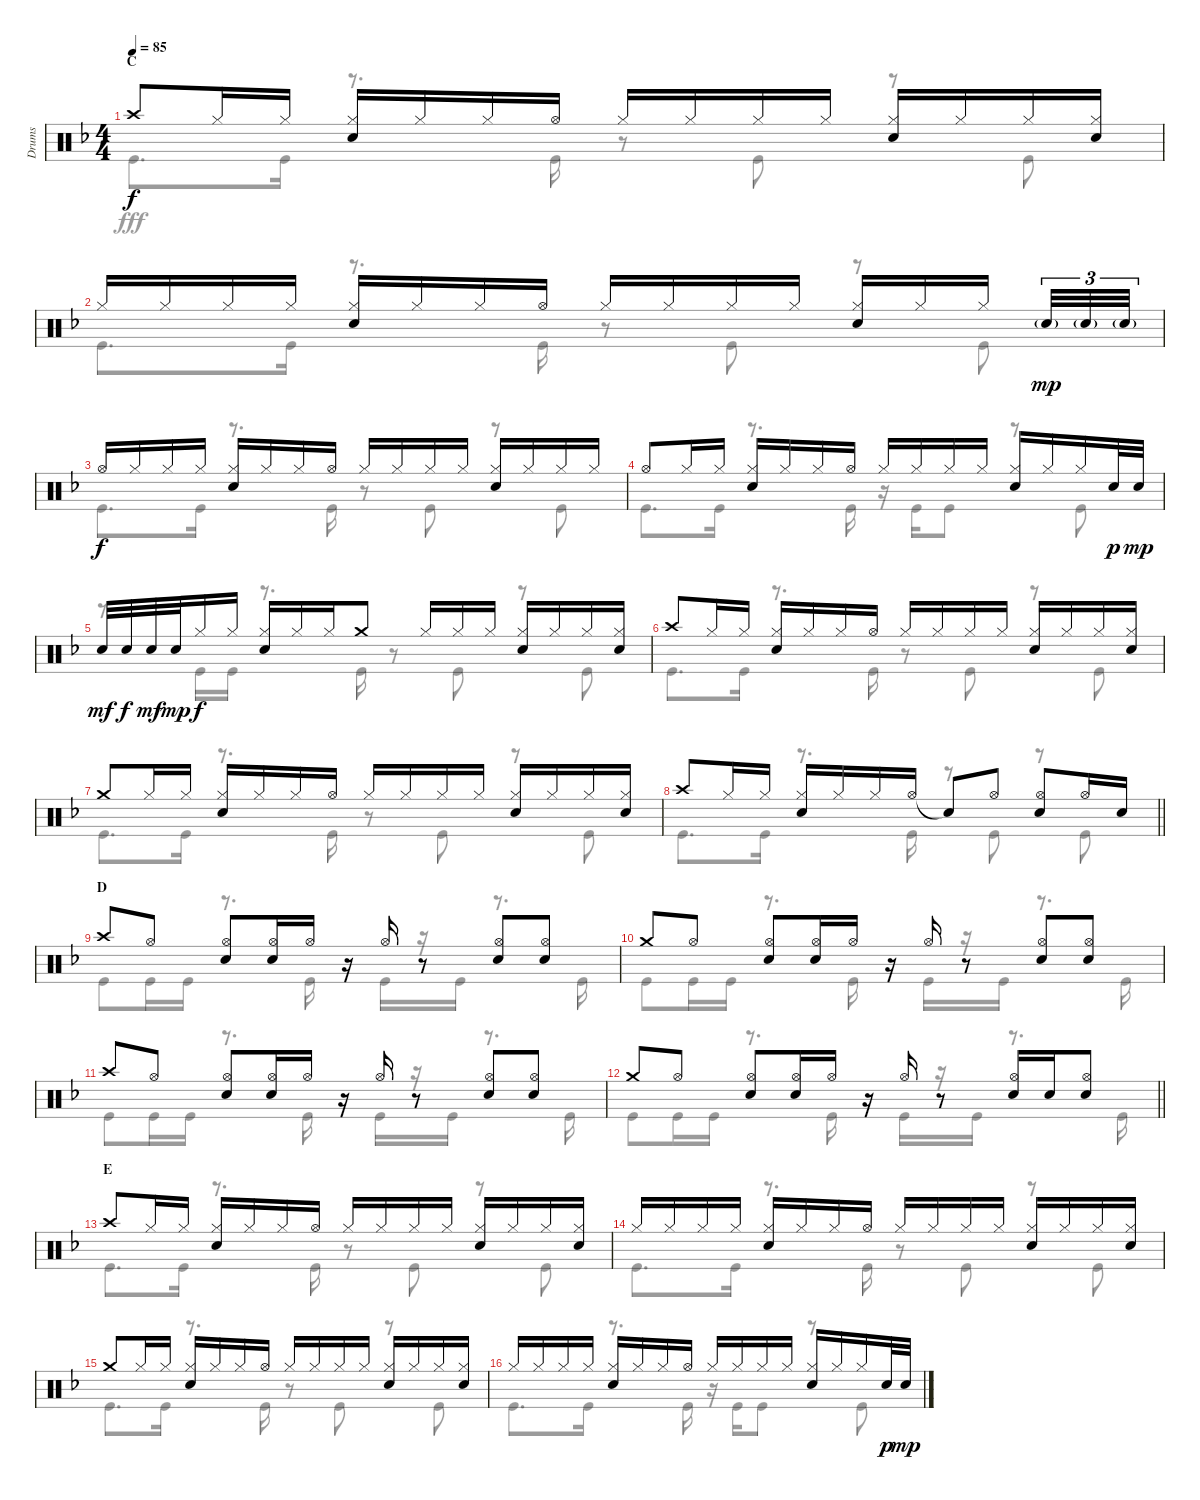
\track ("Drums" "Drums") {instrument percussion}
\staff {score}
\articulation defaults
\voice
\ts (4 4)
\section ("" "C")
\tempo 85
\clef neutral
\ks f "Crash high (hit)".8{dy f} "Hi-Hat (closed)".16 "Hi-Hat (closed)".16
("Hi-Hat (closed)" "Snare (hit) 2").16 "Hi-Hat (closed)".16 "Hi-Hat (closed)".16 "Hi-Hat (open)".16 "Hi-Hat (closed)".16 "Hi-Hat (closed)".16 "Hi-Hat (closed)".16 "Hi-Hat (closed)".16 ("Hi-Hat (closed)" "Snare (hit) 2").16 "Hi-Hat (closed)".16 "Hi-Hat (closed)".16 ("Hi-Hat (closed)" "Snare (hit) 2").16 |
"Hi-Hat (closed)".16 "Hi-Hat (closed)".16 "Hi-Hat (closed)".16 "Hi-Hat (closed)".16 ("Hi-Hat (closed)" "Snare (hit) 2").16 "Hi-Hat (closed)".16 "Hi-Hat (closed)".16 "Hi-Hat (open)".16 "Hi-Hat (closed)".16 "Hi-Hat (closed)".16 "Hi-Hat (closed)".16 "Hi-Hat (closed)".16 ("Hi-Hat (closed)" "Snare (hit) 2").16 "Hi-Hat (closed)".16 "Hi-Hat (closed)".16{beam splitsecondary} "Snare (hit) 2"{g}.32{tu (3 2) dy mp} "Snare (hit) 2"{g}.32{tu (3 2)} "Snare (hit) 2"{g}.32{tu (3 2)} |
"Hi-Hat (open)".16{dy f} "Hi-Hat (closed)".16 "Hi-Hat (closed)".16 "Hi-Hat (closed)".16 ("Hi-Hat (closed)" "Snare (hit) 2").16 "Hi-Hat (closed)".16 "Hi-Hat (closed)".16 "Hi-Hat (open)".16 "Hi-Hat (closed)".16 "Hi-Hat (closed)".16 "Hi-Hat (closed)".16 "Hi-Hat (closed)".16 ("Hi-Hat (closed)" "Snare (hit) 2").16 "Hi-Hat (closed)".16 "Hi-Hat (closed)".16 "Hi-Hat (closed)".16 |
"Hi-Hat (open)".8 "Hi-Hat (closed)".16 "Hi-Hat (closed)".16 ("Hi-Hat (closed)" "Snare (hit) 2").16 "Hi-Hat (closed)".16 "Hi-Hat (closed)".16 "Hi-Hat (open)".16 "Hi-Hat (closed)".16 "Hi-Hat (closed)".16 "Hi-Hat (closed)".16 "Hi-Hat (closed)".16 ("Hi-Hat (closed)" "Snare (hit) 2").16 "Hi-Hat (closed)".16 "Hi-Hat (closed)".16 "Snare (hit) 2".32{dy p} "Snare (hit) 2".32{dy mp} |
"Snare (hit) 2".32{dy mf} "Snare (hit) 2".32{dy f} "Snare (hit) 2".32{dy mf} "Snare (hit) 2".32{dy mp} "Hi-Hat (closed)".16{dy f} "Hi-Hat (closed)".16 ("Hi-Hat (closed)" "Snare (hit) 2").16 "Hi-Hat (closed)".16 "Hi-Hat (closed)".16 "Crash medium (hit)".8 "Hi-Hat (closed)".16 "Hi-Hat (closed)".16 "Hi-Hat (closed)".16 ("Hi-Hat (closed)" "Snare (hit) 2").16 "Hi-Hat (closed)".16 "Hi-Hat (closed)".16 ("Hi-Hat (closed)" "Snare (hit) 2").16 |
"Crash high (hit)".8 "Hi-Hat (closed)".16 "Hi-Hat (closed)".16 ("Hi-Hat (closed)" "Snare (hit) 2").16 "Hi-Hat (closed)".16 "Hi-Hat (closed)".16 "Hi-Hat (open)".16 "Hi-Hat (closed)".16 "Hi-Hat (closed)".16 "Hi-Hat (closed)".16 "Hi-Hat (closed)".16 ("Hi-Hat (closed)" "Snare (hit) 2").16 "Hi-Hat (closed)".16 "Hi-Hat (closed)".16 ("Hi-Hat (closed)" "Snare (hit) 2").16 |
"Crash medium (hit)".8 "Hi-Hat (closed)".16 "Hi-Hat (closed)".16 ("Hi-Hat (closed)" "Snare (hit) 2").16 "Hi-Hat (closed)".16 "Hi-Hat (closed)".16 "Hi-Hat (open)".16 "Hi-Hat (closed)".16 "Hi-Hat (closed)".16 "Hi-Hat (closed)".16 "Hi-Hat (closed)".16 ("Hi-Hat (closed)" "Snare (hit) 2").16 "Hi-Hat (closed)".16 "Hi-Hat (closed)".16 ("Hi-Hat (closed)" "Snare (hit) 2").16 |
\barLineRight lightlight "Crash high (hit)".8 "Hi-Hat (closed)".16 "Hi-Hat (closed)".16
("Hi-Hat (closed)" "Snare (hit) 2").16 "Hi-Hat (closed)".16 "Hi-Hat (closed)".16 "Hi-Hat (open)".16 "Snare (hit)"{t}.8 "Hi-Hat (open)".8 ("Hi-Hat (open)" "Snare (hit) 2").8 "Hi-Hat (open)".16 "Snare (hit) 2".16 |
\section ("" "D")
"Crash high (hit)".8 "Hi-Hat (open)".8 ("Hi-Hat (open)" "Snare (hit) 2").8 ("Hi-Hat (open)" "Snare (hit) 2").16 "Hi-Hat (open)".16 r.16 "Hi-Hat (open)".16 r.8 ("Hi-Hat (open)" "Snare (hit) 2").8 ("Hi-Hat (open)" "Snare (hit) 2").8 |
"Crash medium (hit)".8 "Hi-Hat (open)".8 ("Hi-Hat (open)" "Snare (hit) 2").8 ("Hi-Hat (open)" "Snare (hit) 2").16 "Hi-Hat (open)".16 r.16 "Hi-Hat (open)".16 r.8 ("Hi-Hat (open)" "Snare (hit) 2").8 ("Hi-Hat (open)" "Snare (hit) 2").8 |
"Crash high (hit)".8 "Hi-Hat (open)".8 ("Hi-Hat (open)" "Snare (hit) 2").8 ("Hi-Hat (open)" "Snare (hit) 2").16 "Hi-Hat (open)".16 r.16 "Hi-Hat (open)".16 r.8 ("Hi-Hat (open)" "Snare (hit) 2").8 ("Hi-Hat (open)" "Snare (hit) 2").8 |
\barLineRight lightlight "Crash medium (hit)".8 "Hi-Hat (open)".8
("Hi-Hat (open)" "Snare (hit) 2").8 ("Hi-Hat (open)" "Snare (hit) 2").16 "Hi-Hat (open)".16 r.16 "Hi-Hat (open)".16 r.8 ("Hi-Hat (open)" "Snare (hit) 2").16 "Snare (hit) 2".16 ("Hi-Hat (open)" "Snare (hit) 2").8 |
\section ("" "E")
"Crash high (hit)".8 "Hi-Hat (closed)".16 "Hi-Hat (closed)".16 ("Hi-Hat (closed)" "Snare (hit) 2").16 "Hi-Hat (closed)".16 "Hi-Hat (closed)".16 "Hi-Hat (open)".16 "Hi-Hat (closed)".16 "Hi-Hat (closed)".16 "Hi-Hat (closed)".16 "Hi-Hat (closed)".16 ("Hi-Hat (closed)" "Snare (hit) 2").16 "Hi-Hat (closed)".16 "Hi-Hat (closed)".16 ("Hi-Hat (closed)" "Snare (hit) 2").16 |
"Hi-Hat (closed)".16 "Hi-Hat (closed)".16 "Hi-Hat (closed)".16 "Hi-Hat (closed)".16 ("Hi-Hat (closed)" "Snare (hit) 2").16 "Hi-Hat (closed)".16 "Hi-Hat (closed)".16 "Hi-Hat (open)".16 "Hi-Hat (closed)".16 "Hi-Hat (closed)".16 "Hi-Hat (closed)".16 "Hi-Hat (closed)".16 ("Hi-Hat (closed)" "Snare (hit) 2").16 "Hi-Hat (closed)".16 "Hi-Hat (closed)".16 ("Hi-Hat (closed)" "Snare (hit) 2").16 |
"Crash medium (hit)".8 "Hi-Hat (closed)".16 "Hi-Hat (closed)".16 ("Hi-Hat (closed)" "Snare (hit) 2").16 "Hi-Hat (closed)".16 "Hi-Hat (closed)".16 "Hi-Hat (open)".16 "Hi-Hat (closed)".16 "Hi-Hat (closed)".16 "Hi-Hat (closed)".16 "Hi-Hat (closed)".16 ("Hi-Hat (closed)" "Snare (hit) 2").16 "Hi-Hat (closed)".16 "Hi-Hat (closed)".16 ("Hi-Hat (closed)" "Snare (hit) 2").16 |
"Hi-Hat (closed)".16 "Hi-Hat (closed)".16 "Hi-Hat (closed)".16 "Hi-Hat (closed)".16 ("Hi-Hat (closed)" "Snare (hit) 2").16 "Hi-Hat (closed)".16 "Hi-Hat (closed)".16 "Hi-Hat (open)".16 "Hi-Hat (closed)".16 "Hi-Hat (closed)".16 "Hi-Hat (closed)".16 "Hi-Hat (closed)".16 ("Hi-Hat (closed)" "Snare (hit) 2").16 "Hi-Hat (closed)".16 "Hi-Hat (closed)".16 "Snare (hit) 2".32{dy p} "Snare (hit) 2".32{dy mp}
\voice
\clef neutral
\ottava regular
\simile none
\ks f "Kick (hit)".8{d dy fff} "Kick (hit)".16
r.8{d} "Kick (hit)".16 r.8 "Kick (hit)".8 r.8 "Kick (hit)".8 |
"Kick (hit)".8{d} "Kick (hit)".16 r.8{d} "Kick (hit)".16 r.8 "Kick (hit)".8 r.8 "Kick (hit)".8 |
"Kick (hit)".8{d} "Kick (hit)".16 r.8{d} "Kick (hit)".16 r.8 "Kick (hit)".8 r.8 "Kick (hit)".8 |
"Kick (hit)".8{d} "Kick (hit)".16 r.8{d} "Kick (hit)".16 r.16 "Kick (hit)".16 "Kick (hit)".8 r.8 "Kick (hit)".8 |
r.8 "Kick (hit)".16 "Kick (hit)".16 r.8{d} "Kick (hit)".16 r.8 "Kick (hit)".8 r.8 "Kick (hit)".8 |
"Kick (hit)".8{d} "Kick (hit)".16 r.8{d} "Kick (hit)".16 r.8 "Kick (hit)".8 r.8 "Kick (hit)".8 |
"Kick (hit)".8{d} "Kick (hit)".16 r.8{d} "Kick (hit)".16 r.8 "Kick (hit)".8 r.8 "Kick (hit)".8 |
\barLineRight lightlight "Kick (hit)".8{d} "Kick (hit)".16
r.8{d} "Kick (hit)".16 r.8 "Kick (hit)".8 r.8 "Kick (hit)".8 |
"Kick (hit)".8 "Kick (hit)".16 "Kick (hit)".16 r.8{d} "Kick (hit)".16 r.16 "Kick (hit)".16 r.16 "Kick (hit)".16 r.8{d} "Kick (hit)".16 |
"Kick (hit)".8 "Kick (hit)".16 "Kick (hit)".16 r.8{d} "Kick (hit)".16 r.16 "Kick (hit)".16 r.16 "Kick (hit)".16 r.8{d} "Kick (hit)".16 |
"Kick (hit)".8 "Kick (hit)".16 "Kick (hit)".16 r.8{d} "Kick (hit)".16 r.16 "Kick (hit)".16 r.16 "Kick (hit)".16 r.8{d} "Kick (hit)".16 |
\barLineRight lightlight "Kick (hit)".8 "Kick (hit)".16 "Kick (hit)".16
r.8{d} "Kick (hit)".16 r.16 "Kick (hit)".16 r.16 "Kick (hit)".16 r.8{d} "Kick (hit)".16 |
"Kick (hit)".8{d} "Kick (hit)".16 r.8{d} "Kick (hit)".16 r.8 "Kick (hit)".8 r.8 "Kick (hit)".8 |
"Kick (hit)".8{d} "Kick (hit)".16 r.8{d} "Kick (hit)".16 r.8 "Kick (hit)".8 r.8 "Kick (hit)".8 |
"Kick (hit)".8{d} "Kick (hit)".16 r.8{d} "Kick (hit)".16 r.8 "Kick (hit)".8 r.8 "Kick (hit)".8 |
"Kick (hit)".8{d} "Kick (hit)".16 r.8{d} "Kick (hit)".16 r.16 "Kick (hit)".16 "Kick (hit)".8 r.8 "Kick (hit)".8
